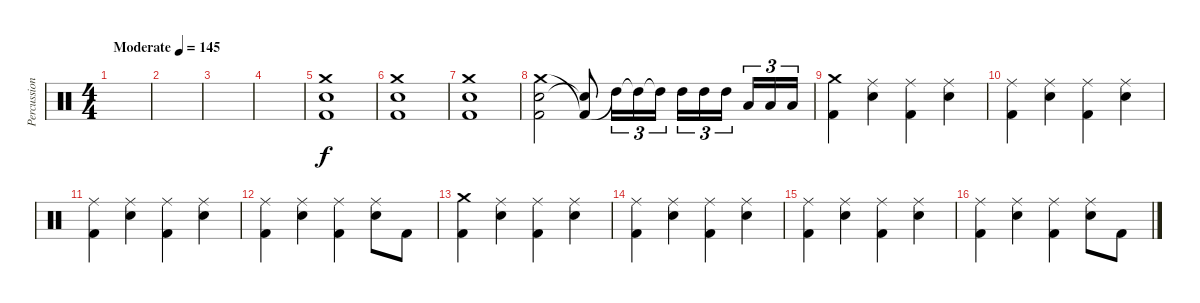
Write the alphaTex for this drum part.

\track ("Percussions" "Percussion") {instrument percussion}
\staff {score}
\articulation defaults
\ts (4 4)
\tempo (145 "Moderate")
\clef neutral
\ks c
|
|
|
|
("Crash medium (hit)" "Snare (hit) 2" "Kick (hit) 2").1 |
("Crash medium (hit)" "Snare (hit) 2" "Kick (hit) 2").1 |
("Crash medium (hit)" "Snare (hit) 2" "Kick (hit) 2").1 |
("Crash medium (hit)" "Snare (hit) 2" "Kick (hit) 2").2 ("Kick (hit) 2"{t} "Snare (hit)"{t}).8 "High Tom (hit)"{t}.16{tu (3 2)} "High Tom (hit)"{t}.16{tu (3 2)} "High Tom (hit)"{t}.16{tu (3 2)} "High Tom (hit)".16{tu (3 2)} "High Tom (hit)".16{tu (3 2)} "High Tom (hit)".16{tu (3 2) beam splitsecondary} "Low Tom (hit)".16{tu (3 2)} "Low Tom (hit)".16{tu (3 2)} "Low Tom (hit)".16{tu (3 2)} |
("Crash medium (hit)" "Kick (hit) 2").4 ("Ride (middle)" "Snare (hit) 2").4 ("Ride (middle)" "Kick (hit) 2").4 ("Ride (middle)" "Snare (hit) 2").4 |
("Ride (middle)" "Kick (hit) 2").4 ("Ride (middle)" "Snare (hit) 2").4 ("Ride (middle)" "Kick (hit) 2").4 ("Ride (middle)" "Snare (hit) 2").4 |
("Ride (middle)" "Kick (hit) 2").4 ("Ride (middle)" "Snare (hit) 2").4 ("Ride (middle)" "Kick (hit) 2").4 ("Ride (middle)" "Snare (hit) 2").4 |
("Ride (middle)" "Kick (hit) 2").4 ("Ride (middle)" "Snare (hit) 2").4 ("Ride (middle)" "Kick (hit) 2").4 ("Ride (middle)" "Snare (hit) 2").8 "Kick (hit) 2".8 |
("Crash medium (hit)" "Kick (hit) 2").4 ("Ride (middle)" "Snare (hit) 2").4 ("Ride (middle)" "Kick (hit) 2").4 ("Ride (middle)" "Snare (hit) 2").4 |
("Ride (middle)" "Kick (hit) 2").4 ("Ride (middle)" "Snare (hit) 2").4 ("Ride (middle)" "Kick (hit) 2").4 ("Ride (middle)" "Snare (hit) 2").4 |
("Ride (middle)" "Kick (hit) 2").4 ("Ride (middle)" "Snare (hit) 2").4 ("Ride (middle)" "Kick (hit) 2").4 ("Ride (middle)" "Snare (hit) 2").4 |
("Ride (middle)" "Kick (hit) 2").4 ("Ride (middle)" "Snare (hit) 2").4 ("Ride (middle)" "Kick (hit) 2").4 ("Ride (middle)" "Snare (hit) 2").8 "Kick (hit) 2".8
